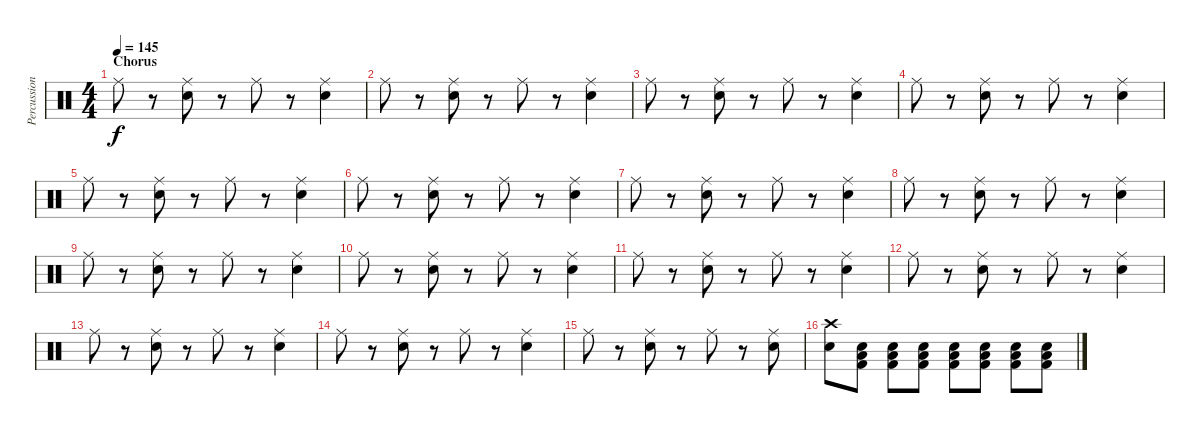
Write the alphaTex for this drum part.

\track ("Percussion" "Percussion") {instrument percussion}
\staff {score}
\articulation defaults
\ts (4 4)
\section ("" "Chorus")
\tempo 145
\clef neutral
\ks c "Ride (middle)".8{dy f}
r.8 ("Ride (middle)" "Electric Snare (hit)").8 r.8 "Ride (middle)".8 r.8 ("Ride (middle)" "Electric Snare (hit)").4 |
"Ride (middle)".8 r.8 ("Ride (middle)" "Electric Snare (hit)").8 r.8 "Ride (middle)".8 r.8 ("Ride (middle)" "Electric Snare (hit)").4 |
"Ride (middle)".8 r.8 ("Ride (middle)" "Electric Snare (hit)").8 r.8 "Ride (middle)".8 r.8 ("Ride (middle)" "Electric Snare (hit)").4 |
"Ride (middle)".8 r.8 ("Ride (middle)" "Electric Snare (hit)").8 r.8 "Ride (middle)".8 r.8 ("Ride (middle)" "Electric Snare (hit)").4 |
"Ride (middle)".8 r.8 ("Ride (middle)" "Electric Snare (hit)").8 r.8 "Ride (middle)".8 r.8 ("Ride (middle)" "Electric Snare (hit)").4 |
"Ride (middle)".8 r.8 ("Ride (middle)" "Electric Snare (hit)").8 r.8 "Ride (middle)".8 r.8 ("Ride (middle)" "Electric Snare (hit)").4 |
"Ride (middle)".8 r.8 ("Ride (middle)" "Electric Snare (hit)").8 r.8 "Ride (middle)".8 r.8 ("Ride (middle)" "Electric Snare (hit)").4 |
"Ride (middle)".8 r.8 ("Ride (middle)" "Electric Snare (hit)").8 r.8 "Ride (middle)".8 r.8 ("Ride (middle)" "Electric Snare (hit)").4 |
"Ride (middle)".8 r.8 ("Ride (middle)" "Electric Snare (hit)").8 r.8 "Ride (middle)".8 r.8 ("Ride (middle)" "Electric Snare (hit)").4 |
"Ride (middle)".8 r.8 ("Ride (middle)" "Electric Snare (hit)").8 r.8 "Ride (middle)".8 r.8 ("Ride (middle)" "Electric Snare (hit)").4 |
"Ride (middle)".8 r.8 ("Ride (middle)" "Electric Snare (hit)").8 r.8 "Ride (middle)".8 r.8 ("Ride (middle)" "Electric Snare (hit)").4 |
"Ride (middle)".8 r.8 ("Ride (middle)" "Electric Snare (hit)").8 r.8 "Ride (middle)".8 r.8 ("Ride (middle)" "Electric Snare (hit)").4 |
"Ride (middle)".8 r.8 ("Ride (middle)" "Electric Snare (hit)").8 r.8 "Ride (middle)".8 r.8 ("Ride (middle)" "Electric Snare (hit)").4 |
"Ride (middle)".8 r.8 ("Ride (middle)" "Electric Snare (hit)").8 r.8 "Ride (middle)".8 r.8 ("Ride (middle)" "Electric Snare (hit)").4 |
"Ride (middle)".8 r.8 ("Ride (middle)" "Electric Snare (hit)").8 r.8 "Ride (middle)".8 r.8 ("Ride (middle)" "Electric Snare (hit)").8 |
("Crash high (hit)" "Electric Snare (hit)").8 ("Kick (hit) 2" "Low Floor Tom (hit)" "Electric Snare (hit)").8 ("Kick (hit) 2" "Low Floor Tom (hit)" "Electric Snare (hit)").8 ("Kick (hit) 2" "Low Floor Tom (hit)" "Electric Snare (hit)").8 ("Kick (hit) 2" "Low Floor Tom (hit)" "Electric Snare (hit)").8 ("Kick (hit) 2" "Low Floor Tom (hit)" "Electric Snare (hit)").8 ("Kick (hit) 2" "Low Floor Tom (hit)" "Electric Snare (hit)").8 ("Kick (hit) 2" "Low Floor Tom (hit)" "Electric Snare (hit)").8
